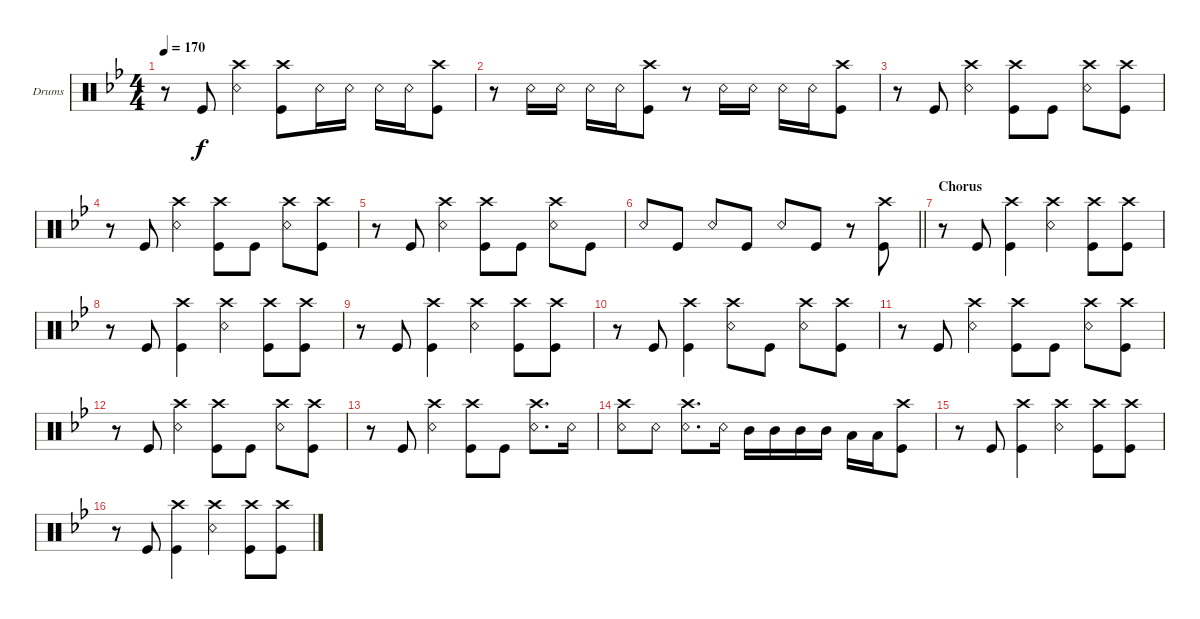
\defaultSystemsLayout 4
\bracketExtendMode groupsimilarinstruments
\firstSystemTrackNameOrientation horizontal
\otherSystemsTrackNameOrientation horizontal
\track ("Drums" "Drums") {instrument percussion}
\staff {score}
\articulation defaults
\ts (4 4)
\tempo 170
\clef neutral
\ks bb
r.8{dy f} "Kick (hit)".8 ("Snare (rim shot)" "Crash high (hit)").4 ("Kick (hit)" "Crash high (hit)").8 "Snare (rim shot)".16 "Snare (rim shot)".16 "Snare (rim shot)".16 "Snare (rim shot)".16 ("Kick (hit)" "Crash high (hit)").8 |
r.8 "Snare (rim shot)".16 "Snare (rim shot)".16 "Snare (rim shot)".16 "Snare (rim shot)".16 ("Kick (hit)" "Crash high (hit)").8 r.8 "Snare (rim shot)".16 "Snare (rim shot)".16 "Snare (rim shot)".16 "Snare (rim shot)".16 ("Kick (hit)" "Crash high (hit)").8 |
r.8 "Kick (hit)".8 ("Snare (rim shot)" "Crash high (hit)").4 ("Kick (hit)" "Crash high (hit)").8 "Kick (hit)".8 ("Snare (rim shot)" "Crash high (hit)").8 ("Kick (hit)" "Crash high (hit)").8 |
r.8 "Kick (hit)".8 ("Snare (rim shot)" "Crash high (hit)").4 ("Kick (hit)" "Crash high (hit)").8 "Kick (hit)".8 ("Snare (rim shot)" "Crash high (hit)").8 ("Kick (hit)" "Crash high (hit)").8 |
r.8 "Kick (hit)".8 ("Snare (rim shot)" "Crash high (hit)").4 ("Kick (hit)" "Crash high (hit)").8 "Kick (hit)".8 ("Snare (rim shot)" "Crash high (hit)").8 "Kick (hit)".8 |
\barLineRight lightlight "Snare (rim shot)".8 "Kick (hit)".8 "Snare (rim shot)".8 "Kick (hit)".8 "Snare (rim shot)".8 "Kick (hit)".8
r.8 ("Kick (hit)" "Crash high (hit)").8 |
\section ("" "Chorus")
r.8 "Kick (hit)".8 ("Kick (hit)" "Crash high (hit)").4 ("Snare (rim shot)" "Crash high (hit)").4 ("Kick (hit)" "Crash high (hit)").8 ("Kick (hit)" "Crash high (hit)").8 |
r.8 "Kick (hit)".8 ("Kick (hit)" "Crash high (hit)").4 ("Snare (rim shot)" "Crash high (hit)").4 ("Kick (hit)" "Crash high (hit)").8 ("Kick (hit)" "Crash high (hit)").8 |
r.8 "Kick (hit)".8 ("Kick (hit)" "Crash high (hit)").4 ("Snare (rim shot)" "Crash high (hit)").4 ("Kick (hit)" "Crash high (hit)").8 ("Kick (hit)" "Crash high (hit)").8 |
r.8 "Kick (hit)".8 ("Kick (hit)" "Crash high (hit)").4 ("Snare (rim shot)" "Crash high (hit)").8 "Kick (hit)".8 ("Snare (rim shot)" "Crash high (hit)").8 ("Kick (hit)" "Crash high (hit)").8 |
r.8 "Kick (hit)".8 ("Snare (rim shot)" "Crash high (hit)").4 ("Kick (hit)" "Crash high (hit)").8 "Kick (hit)".8 ("Snare (rim shot)" "Crash high (hit)").8 ("Kick (hit)" "Crash high (hit)").8 |
r.8 "Kick (hit)".8 ("Snare (rim shot)" "Crash high (hit)").4 ("Kick (hit)" "Crash high (hit)").8 "Kick (hit)".8 ("Snare (rim shot)" "Crash high (hit)").8 ("Kick (hit)" "Crash high (hit)").8 |
r.8 "Kick (hit)".8 ("Snare (rim shot)" "Crash high (hit)").4 ("Kick (hit)" "Crash high (hit)").8 "Kick (hit)".8 ("Snare (rim shot)" "Crash high (hit)").8{d} "Snare (rim shot)".16 |
("Crash high (hit)" "Snare (rim shot)").8 "Snare (rim shot)".8 ("Snare (rim shot)" "Crash high (hit)").8{d} "Snare (rim shot)".16 "Mid Tom (hit)".16 "Mid Tom (hit)".16 "Mid Tom (hit)".16 "Mid Tom (hit)".16 "Low Tom (hit)".16 "Low Tom (hit)".16 ("Kick (hit)" "Crash high (hit)").8 |
r.8 "Kick (hit)".8 ("Kick (hit)" "Crash high (hit)").4 ("Snare (rim shot)" "Crash high (hit)").4 ("Kick (hit)" "Crash high (hit)").8 ("Kick (hit)" "Crash high (hit)").8 |
r.8 "Kick (hit)".8 ("Kick (hit)" "Crash high (hit)").4 ("Snare (rim shot)" "Crash high (hit)").4 ("Kick (hit)" "Crash high (hit)").8 ("Kick (hit)" "Crash high (hit)").8
